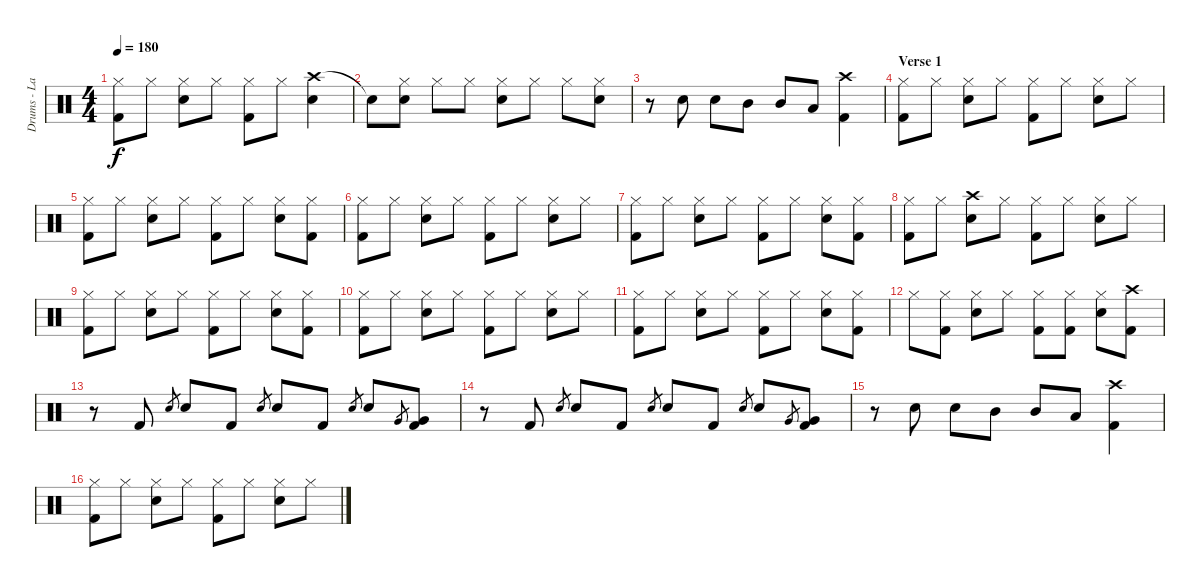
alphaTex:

\track ("Drums - Lars" "Drums - La") {instrument percussion}
\staff {score}
\articulation defaults
\ts (4 4)
\tempo 180
\clef neutral
\ks c
("Hi-Hat (closed)" "Kick (hit) 2").8{dy f} "Hi-Hat (closed)".8 ("Hi-Hat (closed)" "Snare (hit) 2").8 "Hi-Hat (closed)".8 ("Hi-Hat (closed)" "Kick (hit) 2").8 "Hi-Hat (closed)".8 ("Crash high (hit)" "Snare (hit) 2").4 |
"Snare (hit)"{t}.8 ("Hi-Hat (closed)" "Snare (hit) 2").8 "Hi-Hat (closed)".8 "Hi-Hat (closed)".8 ("Hi-Hat (closed)" "Snare (hit) 2").8 "Hi-Hat (closed)".8 "Hi-Hat (closed)".8 ("Hi-Hat (closed)" "Snare (hit) 2").8 |
r.8 "Snare (hit) 2".8 "Snare (hit) 2".8 "Mid Tom (hit)".8 "Mid Tom (hit)".8 "Low Tom (hit)".8 ("Crash high (hit)" "Kick (hit) 2").4 |
\section ("" "Verse 1")
("Hi-Hat (closed)" "Kick (hit) 2").8 "Hi-Hat (closed)".8 ("Hi-Hat (closed)" "Snare (hit) 2").8 "Hi-Hat (closed)".8 ("Hi-Hat (closed)" "Kick (hit) 2").8 "Hi-Hat (closed)".8 ("Hi-Hat (closed)" "Snare (hit) 2").8 "Hi-Hat (closed)".8 |
("Hi-Hat (closed)" "Kick (hit) 2").8 "Hi-Hat (closed)".8 ("Hi-Hat (closed)" "Snare (hit) 2").8 "Hi-Hat (closed)".8 ("Hi-Hat (closed)" "Kick (hit) 2").8 "Hi-Hat (closed)".8 ("Hi-Hat (closed)" "Snare (hit) 2").8 ("Hi-Hat (closed)" "Kick (hit) 2").8 |
("Hi-Hat (closed)" "Kick (hit) 2").8 "Hi-Hat (closed)".8 ("Hi-Hat (closed)" "Snare (hit) 2").8 "Hi-Hat (closed)".8 ("Hi-Hat (closed)" "Kick (hit) 2").8 "Hi-Hat (closed)".8 ("Hi-Hat (closed)" "Snare (hit) 2").8 "Hi-Hat (closed)".8 |
("Hi-Hat (closed)" "Kick (hit) 2").8 "Hi-Hat (closed)".8 ("Hi-Hat (closed)" "Snare (hit) 2").8 "Hi-Hat (closed)".8 ("Hi-Hat (closed)" "Kick (hit) 2").8 "Hi-Hat (closed)".8 ("Hi-Hat (closed)" "Snare (hit) 2").8 ("Hi-Hat (closed)" "Kick (hit) 2").8 |
("Hi-Hat (closed)" "Kick (hit) 2").8 "Hi-Hat (closed)".8 ("Crash high (hit)" "Snare (hit) 2").8 "Hi-Hat (closed)".8 ("Hi-Hat (closed)" "Kick (hit) 2").8 "Hi-Hat (closed)".8 ("Hi-Hat (closed)" "Snare (hit) 2").8 "Hi-Hat (closed)".8 |
("Hi-Hat (closed)" "Kick (hit) 2").8 "Hi-Hat (closed)".8 ("Hi-Hat (closed)" "Snare (hit) 2").8 "Hi-Hat (closed)".8 ("Hi-Hat (closed)" "Kick (hit) 2").8 "Hi-Hat (closed)".8 ("Hi-Hat (closed)" "Snare (hit) 2").8 ("Hi-Hat (closed)" "Kick (hit) 2").8 |
("Hi-Hat (closed)" "Kick (hit) 2").8 "Hi-Hat (closed)".8 ("Hi-Hat (closed)" "Snare (hit) 2").8 "Hi-Hat (closed)".8 ("Hi-Hat (closed)" "Kick (hit) 2").8 "Hi-Hat (closed)".8 ("Hi-Hat (closed)" "Snare (hit) 2").8 "Hi-Hat (closed)".8 |
("Hi-Hat (closed)" "Kick (hit) 2").8 "Hi-Hat (closed)".8 ("Hi-Hat (closed)" "Snare (hit) 2").8 "Hi-Hat (closed)".8 ("Hi-Hat (closed)" "Kick (hit) 2").8 "Hi-Hat (closed)".8 ("Hi-Hat (closed)" "Snare (hit) 2").8 ("Hi-Hat (closed)" "Kick (hit) 2").8 |
"Hi-Hat (closed)".8 ("Hi-Hat (closed)" "Kick (hit) 2").8 ("Hi-Hat (closed)" "Snare (hit) 2").8 "Hi-Hat (closed)".8 ("Hi-Hat (closed)" "Kick (hit) 2").8 ("Hi-Hat (closed)" "Kick (hit) 2").8 ("Hi-Hat (closed)" "Snare (hit) 2").8 ("Crash high (hit)" "Kick (hit) 2").8 |
r.8 "Kick (hit) 2".8 "Snare (hit) 2".8{gr} "Snare (hit) 2".8 "Kick (hit) 2".8 "Snare (hit) 2".8{gr} "Snare (hit) 2".8 "Kick (hit) 2".8 "Snare (hit) 2".8{gr} "Snare (hit) 2".8 "Very Low Tom (hit)".8{gr} ("Very Low Tom (hit)" "Kick (hit) 2").8 |
r.8 "Kick (hit) 2".8 "Snare (hit) 2".8{gr} "Snare (hit) 2".8 "Kick (hit) 2".8 "Snare (hit) 2".8{gr} "Snare (hit) 2".8 "Kick (hit) 2".8 "Snare (hit) 2".8{gr} "Snare (hit) 2".8 "Very Low Tom (hit)".8{gr} ("Very Low Tom (hit)" "Kick (hit) 2").8 |
r.8 "Snare (hit) 2".8 "Snare (hit) 2".8 "Mid Tom (hit)".8 "Mid Tom (hit)".8 "Low Tom (hit)".8 ("Crash high (hit)" "Kick (hit) 2").4 |
("Hi-Hat (closed)" "Kick (hit) 2").8 "Hi-Hat (closed)".8 ("Hi-Hat (closed)" "Snare (hit) 2").8 "Hi-Hat (closed)".8 ("Hi-Hat (closed)" "Kick (hit) 2").8 "Hi-Hat (closed)".8 ("Hi-Hat (closed)" "Snare (hit) 2").8 "Hi-Hat (closed)".8
